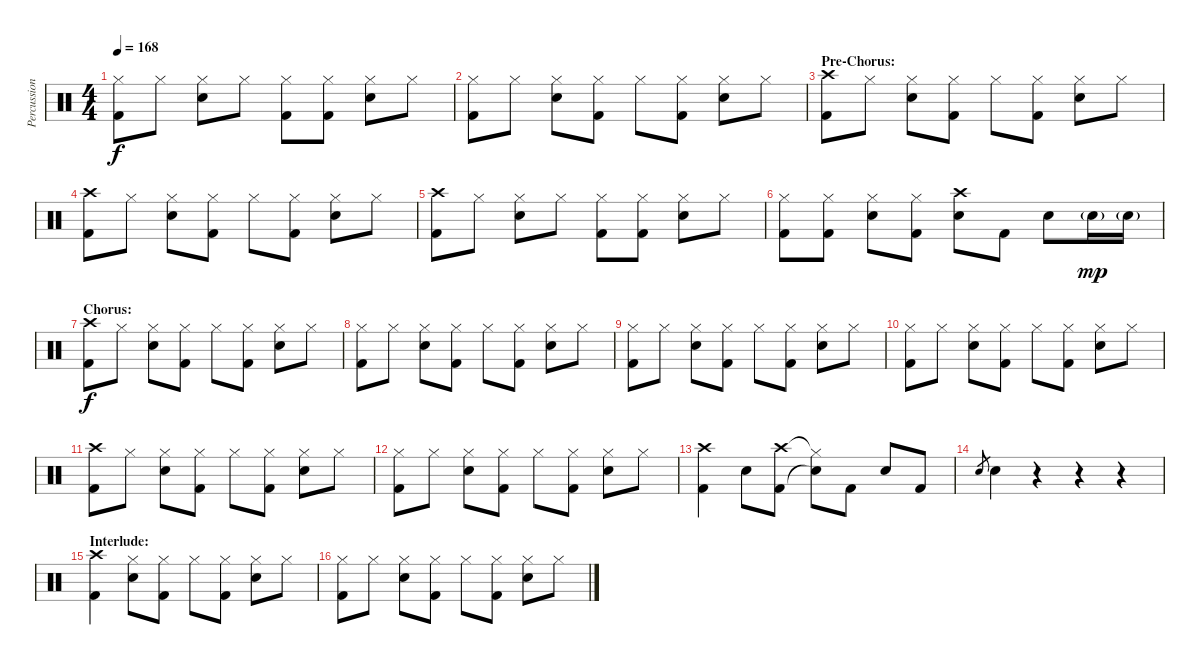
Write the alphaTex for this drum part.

\track ("Percussion" "Percussion") {instrument percussion}
\staff {score}
\articulation defaults
\ts (4 4)
\tempo 168
\clef neutral
\ks c
("Hi-Hat (closed)" "Kick (hit) 2").8{dy f} "Hi-Hat (closed)".8 ("Hi-Hat (closed)" "Snare (hit) 2").8 "Hi-Hat (closed)".8 ("Hi-Hat (closed)" "Kick (hit) 2").8 ("Hi-Hat (closed)" "Kick (hit) 2").8 ("Hi-Hat (closed)" "Snare (hit) 2").8 "Hi-Hat (closed)".8 |
("Hi-Hat (closed)" "Kick (hit) 2").8 "Hi-Hat (closed)".8 ("Hi-Hat (closed)" "Snare (hit) 2").8 ("Hi-Hat (closed)" "Kick (hit) 2").8 "Hi-Hat (closed)".8 ("Hi-Hat (closed)" "Kick (hit) 2").8 ("Hi-Hat (closed)" "Snare (hit) 2").8 "Hi-Hat (closed)".8 |
\section ("" "Pre-Chorus:")
("Crash high (hit)" "Kick (hit) 2").8 "Hi-Hat (closed)".8 ("Hi-Hat (closed)" "Snare (hit) 2").8 ("Hi-Hat (closed)" "Kick (hit) 2").8 "Hi-Hat (closed)".8 ("Hi-Hat (closed)" "Kick (hit) 2").8 ("Hi-Hat (closed)" "Snare (hit) 2").8 "Hi-Hat (closed)".8 |
("Crash high (hit)" "Kick (hit) 2").8 "Hi-Hat (closed)".8 ("Hi-Hat (closed)" "Snare (hit) 2").8 ("Hi-Hat (closed)" "Kick (hit) 2").8 "Hi-Hat (closed)".8 ("Hi-Hat (closed)" "Kick (hit) 2").8 ("Hi-Hat (closed)" "Snare (hit) 2").8 "Hi-Hat (closed)".8 |
("Crash high (hit)" "Kick (hit) 2").8 "Hi-Hat (closed)".8 ("Hi-Hat (closed)" "Snare (hit) 2").8 "Hi-Hat (closed)".8 ("Hi-Hat (closed)" "Kick (hit) 2").8 ("Hi-Hat (closed)" "Kick (hit) 2").8 ("Hi-Hat (closed)" "Snare (hit) 2").8 "Hi-Hat (closed)".8 |
("Hi-Hat (closed)" "Kick (hit) 2").8 ("Hi-Hat (closed)" "Kick (hit) 2").8 ("Hi-Hat (closed)" "Snare (hit) 2").8 ("Hi-Hat (closed)" "Kick (hit) 2").8 ("Crash high (hit)" "Snare (hit) 2").8 "Kick (hit) 2".8 "Snare (hit) 2".8 "Snare (hit) 2"{g}.16{dy mp} "Snare (hit) 2"{g}.16 |
\section ("" "Chorus:")
("Crash high (hit)" "Kick (hit) 2").8{dy f} "Hi-Hat (closed)".8 ("Hi-Hat (closed)" "Snare (hit) 2").8 ("Hi-Hat (closed)" "Kick (hit) 2").8 "Hi-Hat (closed)".8 ("Hi-Hat (closed)" "Kick (hit) 2").8 ("Hi-Hat (closed)" "Snare (hit) 2").8 "Hi-Hat (closed)".8 |
("Hi-Hat (closed)" "Kick (hit) 2").8 "Hi-Hat (closed)".8 ("Hi-Hat (closed)" "Snare (hit) 2").8 ("Hi-Hat (closed)" "Kick (hit) 2").8 "Hi-Hat (closed)".8 ("Hi-Hat (closed)" "Kick (hit) 2").8 ("Hi-Hat (closed)" "Snare (hit) 2").8 "Hi-Hat (closed)".8 |
("Hi-Hat (closed)" "Kick (hit) 2").8 "Hi-Hat (closed)".8 ("Hi-Hat (closed)" "Snare (hit) 2").8 ("Hi-Hat (closed)" "Kick (hit) 2").8 "Hi-Hat (closed)".8 ("Hi-Hat (closed)" "Kick (hit) 2").8 ("Hi-Hat (closed)" "Snare (hit) 2").8 "Hi-Hat (closed)".8 |
("Hi-Hat (closed)" "Kick (hit) 2").8 "Hi-Hat (closed)".8 ("Hi-Hat (closed)" "Snare (hit) 2").8 ("Hi-Hat (closed)" "Kick (hit) 2").8 "Hi-Hat (closed)".8 ("Hi-Hat (closed)" "Kick (hit) 2").8 ("Hi-Hat (closed)" "Snare (hit) 2").8 "Hi-Hat (closed)".8 |
("Crash high (hit)" "Kick (hit) 2").8 "Hi-Hat (closed)".8 ("Hi-Hat (closed)" "Snare (hit) 2").8 ("Hi-Hat (closed)" "Kick (hit) 2").8 "Hi-Hat (closed)".8 ("Hi-Hat (closed)" "Kick (hit) 2").8 ("Hi-Hat (closed)" "Snare (hit) 2").8 "Hi-Hat (closed)".8 |
("Hi-Hat (closed)" "Kick (hit) 2").8 "Hi-Hat (closed)".8 ("Hi-Hat (closed)" "Snare (hit) 2").8 ("Hi-Hat (closed)" "Kick (hit) 2").8 "Hi-Hat (closed)".8 ("Hi-Hat (closed)" "Kick (hit) 2").8 ("Hi-Hat (closed)" "Snare (hit) 2").8 "Hi-Hat (closed)".8 |
("Crash high (hit)" "Kick (hit) 2").4 "Snare (hit) 2".8 ("Crash high (hit)" "Kick (hit) 2").8 ("Hi-Hat (closed)"{t} "Snare (hit)"{t}).8 "Kick (hit) 2".8 "Snare (hit) 2".8 "Kick (hit) 2".8 |
"Snare (hit) 2".8{gr} "Snare (hit) 2".4 r.4 r.4 r.4 |
\section ("" "Interlude:")
("Crash high (hit)" "Kick (hit) 2").4 ("Hi-Hat (closed)" "Snare (hit) 2").8 ("Hi-Hat (closed)" "Kick (hit) 2").8 "Hi-Hat (closed)".8 ("Hi-Hat (closed)" "Kick (hit) 2").8 ("Hi-Hat (closed)" "Snare (hit) 2").8 "Hi-Hat (closed)".8 |
("Hi-Hat (closed)" "Kick (hit) 2").8 "Hi-Hat (closed)".8 ("Hi-Hat (closed)" "Snare (hit) 2").8 ("Hi-Hat (closed)" "Kick (hit) 2").8 "Hi-Hat (closed)".8 ("Hi-Hat (closed)" "Kick (hit) 2").8 ("Hi-Hat (closed)" "Snare (hit) 2").8 "Hi-Hat (closed)".8
